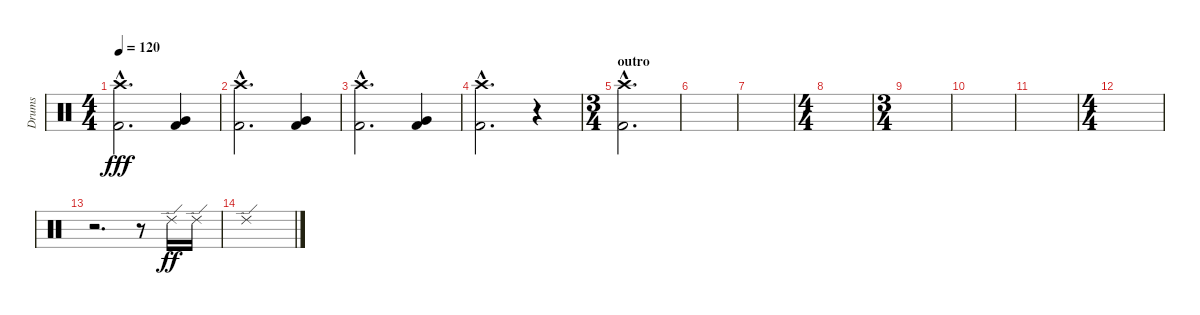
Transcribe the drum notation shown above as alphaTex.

\track ("Drums" "Drums") {instrument percussion}
\staff {score}
\articulation defaults
\ts (4 4)
\tempo 120
\clef neutral
\ks c
("Crash high (hit)"{hac} "Kick (hit) 2"{hac}).2{d dy fff} ("Very Low Tom (hit)" "Kick (hit) 2").4 |
("Crash high (hit)"{hac} "Kick (hit) 2"{hac}).2{d} ("Very Low Tom (hit)" "Kick (hit) 2").4 |
("Crash high (hit)"{hac} "Kick (hit) 2"{hac}).2{d} ("Very Low Tom (hit)" "Kick (hit) 2").4 |
("Crash high (hit)"{hac} "Kick (hit) 2"{hac}).2{d} r.4 |
\ts (3 4)
\section ("" "outro")
("Crash high (hit)"{hac} "Kick (hit) 2"{hac}).2{d} |
|
|
\ts (4 4)
|
\ts (3 4)
|
|
|
\ts (4 4)
|
r.2{d} r.8 "Ride (edge) 2".16{dy ff} "Ride (edge) 2".16 |
"Ride (edge) 2".1
